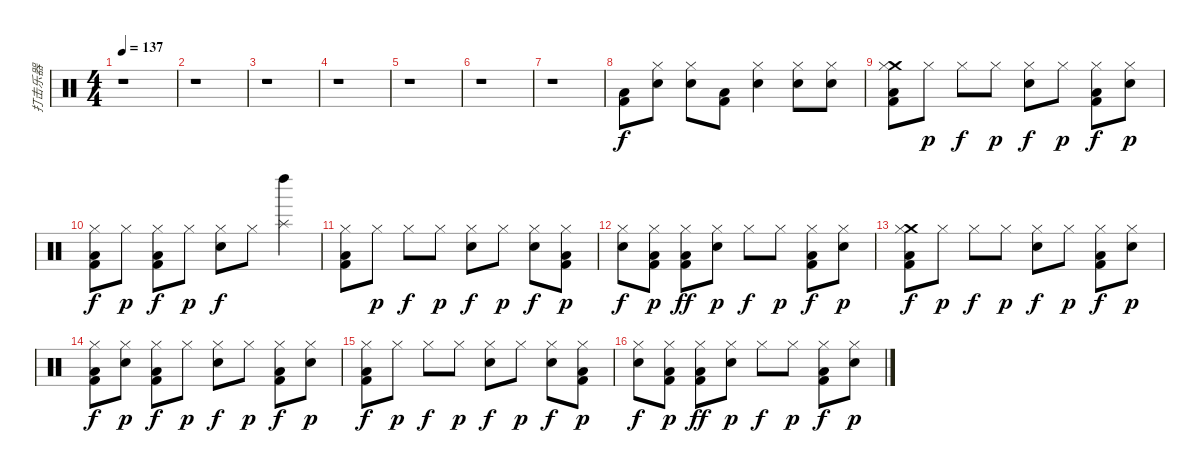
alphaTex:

\track ("打击乐器" "打击乐器") {instrument percussion}
\staff {score}
\articulation defaults
\ts (4 4)
\tempo 137
\clef neutral
\ks c
r.1{dy f} |
r.1 |
r.1 |
r.1 |
r.1 |
r.1 |
r.1 |
("Low Floor Tom (hit)" "Kick (hit) 2").8 ("Hi-Hat (closed)" "Electric Snare (hit)").8 ("Hi-Hat (closed)" "Electric Snare (hit)").8 ("Low Floor Tom (hit)" "Kick (hit) 2").8 ("Hi-Hat (closed)" "Electric Snare (hit)").4 ("Hi-Hat (closed)" "Electric Snare (hit)").8 ("Hi-Hat (closed)" "Electric Snare (hit)").8 |
("Low Floor Tom (hit)" "Kick (hit) 2" "Crash medium (hit)" "Hi-Hat (closed)").8 "Hi-Hat (closed)".8{dy p} "Hi-Hat (closed)".8{dy f} "Hi-Hat (closed)".8{dy p} ("Electric Snare (hit)" "Hi-Hat (closed)").8{dy f} "Hi-Hat (closed)".8{dy p} ("Low Floor Tom (hit)" "Kick (hit) 2" "Hi-Hat (closed)").8{dy f} ("Electric Snare (hit)" "Hi-Hat (closed)").8{dy p} |
("Low Floor Tom (hit)" "Kick (hit) 2" "Hi-Hat (closed)").8{dy f} "Hi-Hat (closed)".8{dy p} ("Low Floor Tom (hit)" "Kick (hit) 2" "Hi-Hat (closed)").8{dy f} "Hi-Hat (closed)".8{dy p} ("Electric Snare (hit)" "Hi-Hat (closed)").8{dy f} "Hi-Hat (closed)".8 ("Splash (hit)" "Left Maraca (hit)").4 |
("Low Floor Tom (hit)" "Kick (hit) 2" "Hi-Hat (closed)").8 "Hi-Hat (closed)".8{dy p} "Hi-Hat (closed)".8{dy f} "Hi-Hat (closed)".8{dy p} ("Electric Snare (hit)" "Hi-Hat (closed)").8{dy f} "Hi-Hat (closed)".8{dy p} ("Electric Snare (hit)" "Hi-Hat (closed)").8{dy f} ("Low Floor Tom (hit)" "Kick (hit) 2" "Hi-Hat (closed)").8{dy p} |
("Electric Snare (hit)" "Hi-Hat (closed)").8{dy f} ("Low Floor Tom (hit)" "Kick (hit) 2" "Hi-Hat (closed)").8{dy p} ("Low Floor Tom (hit)" "Kick (hit) 2" "Hi-Hat (closed)").8{dy ff} ("Electric Snare (hit)" "Hi-Hat (closed)").8{dy p} "Hi-Hat (closed)".8{dy f} "Hi-Hat (closed)".8{dy p} ("Low Floor Tom (hit)" "Kick (hit) 2" "Hi-Hat (closed)").8{dy f} ("Electric Snare (hit)" "Hi-Hat (closed)").8{dy p} |
("Low Floor Tom (hit)" "Kick (hit) 2" "Crash medium (hit)" "Hi-Hat (closed)").8{dy f} "Hi-Hat (closed)".8{dy p} "Hi-Hat (closed)".8{dy f} "Hi-Hat (closed)".8{dy p} ("Electric Snare (hit)" "Hi-Hat (closed)").8{dy f} "Hi-Hat (closed)".8{dy p} ("Low Floor Tom (hit)" "Kick (hit) 2" "Hi-Hat (closed)").8{dy f} ("Electric Snare (hit)" "Hi-Hat (closed)").8{dy p} |
("Low Floor Tom (hit)" "Kick (hit) 2" "Hi-Hat (closed)").8{dy f} ("Electric Snare (hit)" "Hi-Hat (closed)").8{dy p} ("Low Floor Tom (hit)" "Kick (hit) 2" "Hi-Hat (closed)").8{dy f} "Hi-Hat (closed)".8{dy p} ("Electric Snare (hit)" "Hi-Hat (closed)").8{dy f} "Hi-Hat (closed)".8{dy p} ("Low Floor Tom (hit)" "Kick (hit) 2" "Hi-Hat (closed)").8{dy f} ("Electric Snare (hit)" "Hi-Hat (closed)").8{dy p} |
("Low Floor Tom (hit)" "Kick (hit) 2" "Hi-Hat (closed)").8{dy f} "Hi-Hat (closed)".8{dy p} "Hi-Hat (closed)".8{dy f} "Hi-Hat (closed)".8{dy p} ("Electric Snare (hit)" "Hi-Hat (closed)").8{dy f} "Hi-Hat (closed)".8{dy p} ("Electric Snare (hit)" "Hi-Hat (closed)").8{dy f} ("Low Floor Tom (hit)" "Kick (hit) 2" "Hi-Hat (closed)").8{dy p} |
("Electric Snare (hit)" "Hi-Hat (closed)").8{dy f} ("Low Floor Tom (hit)" "Kick (hit) 2" "Hi-Hat (closed)").8{dy p} ("Low Floor Tom (hit)" "Kick (hit) 2" "Hi-Hat (closed)").8{dy ff} ("Electric Snare (hit)" "Hi-Hat (closed)").8{dy p} "Hi-Hat (closed)".8{dy f} "Hi-Hat (closed)".8{dy p} ("Low Floor Tom (hit)" "Kick (hit) 2" "Hi-Hat (closed)").8{dy f} ("Electric Snare (hit)" "Hi-Hat (closed)").8{dy p}
